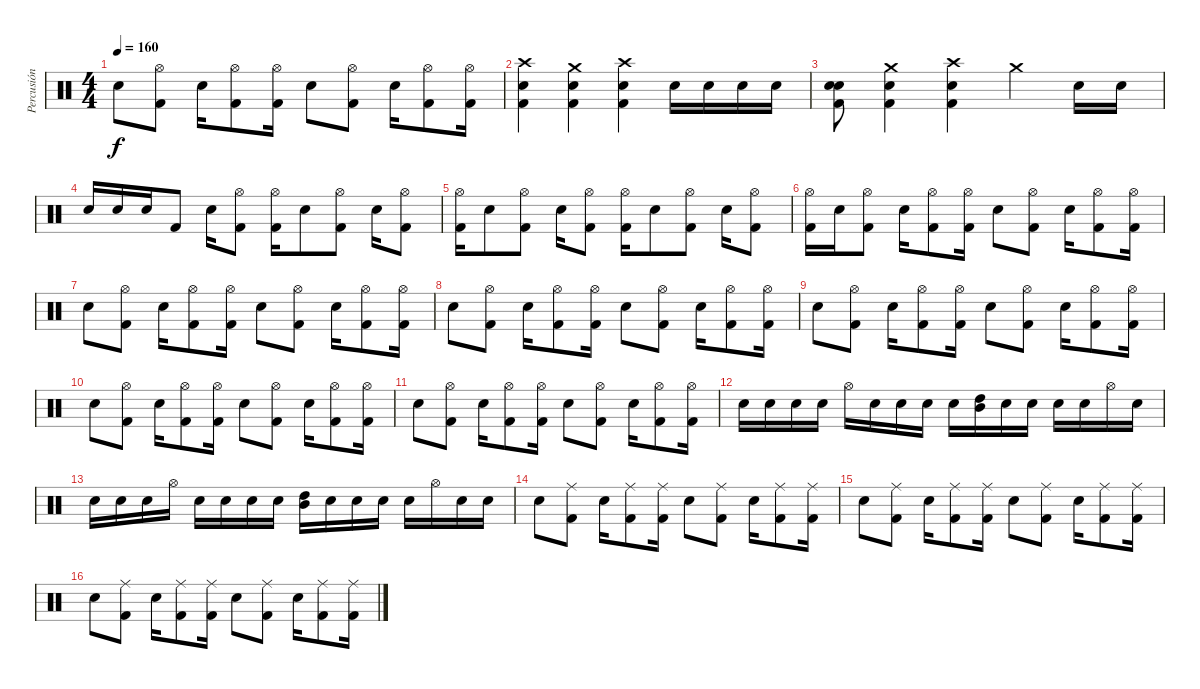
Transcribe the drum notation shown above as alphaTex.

\track ("Percusión" "Percusión") {instrument percussion}
\staff {score}
\articulation defaults
\ts (4 4)
\tempo 160
\clef neutral
\ks c "Snare (hit) 2".8{dy f}
("Kick (hit) 2" "Hi-Hat (open)").8 "Snare (hit) 2".16 ("Kick (hit) 2" "Hi-Hat (open)").8 ("Kick (hit) 2" "Hi-Hat (open)").16 "Snare (hit) 2".8 ("Kick (hit) 2" "Hi-Hat (open)").8 "Snare (hit) 2".16 ("Kick (hit) 2" "Hi-Hat (open)").8 ("Kick (hit) 2" "Hi-Hat (open)").16 |
("Crash high (hit)" "Snare (hit) 2" "Kick (hit) 2").4 ("Crash medium (hit)" "Snare (hit) 2" "Kick (hit) 2").4 ("Crash high (hit)" "Snare (hit) 2" "Kick (hit) 2").4 "Electric Snare (hit)".16 "Electric Snare (hit)".16 "Electric Snare (hit)".16 "Electric Snare (hit)".16 |
("Electric Snare (hit)" "Snare (hit) 2" "Kick (hit) 2").8 ("Crash medium (hit)" "Snare (hit) 2" "Kick (hit) 2").4 ("Crash high (hit)" "Snare (hit) 2" "Kick (hit) 2").4 "Crash medium (hit)".4 "Electric Snare (hit)".16 "Electric Snare (hit)".16 |
"Electric Snare (hit)".16 "Electric Snare (hit)".16 "Electric Snare (hit)".16 "Kick (hit) 2".8 "Snare (hit) 2".16 ("Kick (hit) 2" "Hi-Hat (open)").8 ("Kick (hit) 2" "Hi-Hat (open)").16 "Snare (hit) 2".8 ("Kick (hit) 2" "Hi-Hat (open)").8 "Snare (hit) 2".16 ("Kick (hit) 2" "Hi-Hat (open)").8 |
("Kick (hit) 2" "Hi-Hat (open)").16 "Snare (hit) 2".8 ("Kick (hit) 2" "Hi-Hat (open)").8 "Snare (hit) 2".16 ("Kick (hit) 2" "Hi-Hat (open)").8 ("Kick (hit) 2" "Hi-Hat (open)").16 "Snare (hit) 2".8 ("Kick (hit) 2" "Hi-Hat (open)").8 "Snare (hit) 2".16 ("Kick (hit) 2" "Hi-Hat (open)").8 |
("Kick (hit) 2" "Hi-Hat (open)").16 "Snare (hit) 2".16 ("Kick (hit) 2" "Hi-Hat (open)").8 "Snare (hit) 2".16 ("Kick (hit) 2" "Hi-Hat (open)").8 ("Kick (hit) 2" "Hi-Hat (open)").16 "Snare (hit) 2".8 ("Kick (hit) 2" "Hi-Hat (open)").8 "Snare (hit) 2".16 ("Kick (hit) 2" "Hi-Hat (open)").8 ("Kick (hit) 2" "Hi-Hat (open)").16 |
"Snare (hit) 2".8 ("Kick (hit) 2" "Hi-Hat (open)").8 "Snare (hit) 2".16 ("Kick (hit) 2" "Hi-Hat (open)").8 ("Kick (hit) 2" "Hi-Hat (open)").16 "Snare (hit) 2".8 ("Kick (hit) 2" "Hi-Hat (open)").8 "Snare (hit) 2".16 ("Kick (hit) 2" "Hi-Hat (open)").8 ("Kick (hit) 2" "Hi-Hat (open)").16 |
"Snare (hit) 2".8 ("Kick (hit) 2" "Hi-Hat (open)").8 "Snare (hit) 2".16 ("Kick (hit) 2" "Hi-Hat (open)").8 ("Kick (hit) 2" "Hi-Hat (open)").16 "Snare (hit) 2".8 ("Kick (hit) 2" "Hi-Hat (open)").8 "Snare (hit) 2".16 ("Kick (hit) 2" "Hi-Hat (open)").8 ("Kick (hit) 2" "Hi-Hat (open)").16 |
"Snare (hit) 2".8 ("Kick (hit) 2" "Hi-Hat (open)").8 "Snare (hit) 2".16 ("Kick (hit) 2" "Hi-Hat (open)").8 ("Kick (hit) 2" "Hi-Hat (open)").16 "Snare (hit) 2".8 ("Kick (hit) 2" "Hi-Hat (open)").8 "Snare (hit) 2".16 ("Kick (hit) 2" "Hi-Hat (open)").8 ("Kick (hit) 2" "Hi-Hat (open)").16 |
"Snare (hit) 2".8 ("Kick (hit) 2" "Hi-Hat (open)").8 "Snare (hit) 2".16 ("Kick (hit) 2" "Hi-Hat (open)").8 ("Kick (hit) 2" "Hi-Hat (open)").16 "Snare (hit) 2".8 ("Kick (hit) 2" "Hi-Hat (open)").8 "Snare (hit) 2".16 ("Kick (hit) 2" "Hi-Hat (open)").8 ("Kick (hit) 2" "Hi-Hat (open)").16 |
"Snare (hit) 2".8 ("Kick (hit) 2" "Hi-Hat (open)").8 "Snare (hit) 2".16 ("Kick (hit) 2" "Hi-Hat (open)").8 ("Kick (hit) 2" "Hi-Hat (open)").16 "Snare (hit) 2".8 ("Kick (hit) 2" "Hi-Hat (open)").8 "Snare (hit) 2".16 ("Kick (hit) 2" "Hi-Hat (open)").8 ("Kick (hit) 2" "Hi-Hat (open)").16 |
"Electric Snare (hit)".16 "Electric Snare (hit)".16 "Electric Snare (hit)".16 "Electric Snare (hit)".16 "Hi-Hat (open)".16 "Electric Snare (hit)".16 "Electric Snare (hit)".16 "Electric Snare (hit)".16 "Electric Snare (hit)".16 ("High Tom (hit)" "Mid Tom (hit)").16 "Electric Snare (hit)".16 "Electric Snare (hit)".16 "Electric Snare (hit)".16 "Electric Snare (hit)".16 "Hi-Hat (open)".16 "Electric Snare (hit)".16 |
"Electric Snare (hit)".16 "Electric Snare (hit)".16 "Electric Snare (hit)".16 "Hi-Hat (open)".16 "Electric Snare (hit)".16 "Electric Snare (hit)".16 "Electric Snare (hit)".16 "Electric Snare (hit)".16 ("High Tom (hit)" "Mid Tom (hit)").16 "Electric Snare (hit)".16 "Electric Snare (hit)".16 "Electric Snare (hit)".16 "Electric Snare (hit)".16 "Hi-Hat (open)".16 "Electric Snare (hit)".16 "Electric Snare (hit)".16 |
"Snare (hit) 2".8 ("Kick (hit) 2" "Ride (middle)").8 "Snare (hit) 2".16 ("Kick (hit) 2" "Ride (middle)").8 ("Kick (hit) 2" "Ride (middle)").16 "Snare (hit) 2".8 ("Kick (hit) 2" "Ride (middle)").8 "Snare (hit) 2".16 ("Kick (hit) 2" "Ride (middle)").8 ("Kick (hit) 2" "Ride (middle)").16 |
"Snare (hit) 2".8 ("Kick (hit) 2" "Ride (middle)").8 "Snare (hit) 2".16 ("Kick (hit) 2" "Ride (middle)").8 ("Kick (hit) 2" "Ride (middle)").16 "Snare (hit) 2".8 ("Kick (hit) 2" "Ride (middle)").8 "Snare (hit) 2".16 ("Kick (hit) 2" "Ride (middle)").8 ("Kick (hit) 2" "Ride (middle)").16 |
"Snare (hit) 2".8 ("Kick (hit) 2" "Ride (middle)").8 "Snare (hit) 2".16 ("Kick (hit) 2" "Ride (middle)").8 ("Kick (hit) 2" "Ride (middle)").16 "Snare (hit) 2".8 ("Kick (hit) 2" "Ride (middle)").8 "Snare (hit) 2".16 ("Kick (hit) 2" "Ride (middle)").8 ("Kick (hit) 2" "Ride (middle)").16
